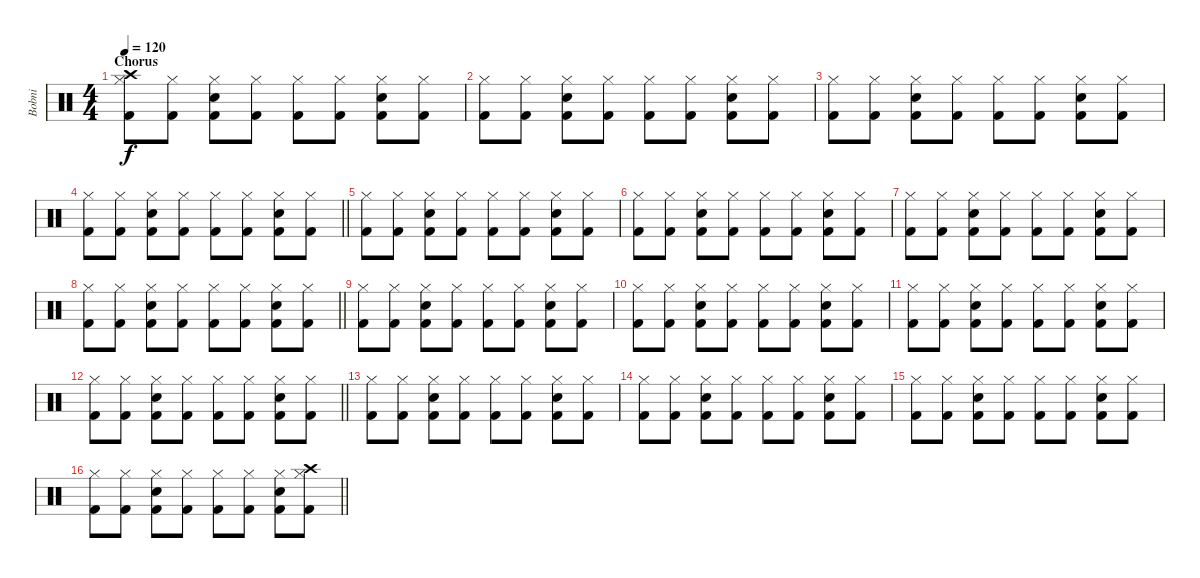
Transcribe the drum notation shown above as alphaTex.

\track ("Bobni" "Bobni") {instrument percussion}
\staff {score}
\articulation defaults
\ts (4 4)
\section ("" "Chorus")
\tempo 120
\clef neutral
\ks c
("Crash high (hit)" "Hi-Hat (closed)" "Kick (hit) 2").8{dy f} ("Hi-Hat (closed)" "Kick (hit) 2").8 ("Hi-Hat (closed)" "Electric Snare (hit)" "Kick (hit) 2").8 ("Hi-Hat (closed)" "Kick (hit) 2").8 ("Hi-Hat (closed)" "Kick (hit) 2").8 ("Hi-Hat (closed)" "Kick (hit) 2").8 ("Hi-Hat (closed)" "Electric Snare (hit)" "Kick (hit) 2").8 ("Hi-Hat (closed)" "Kick (hit) 2").8 |
("Hi-Hat (closed)" "Kick (hit) 2").8 ("Hi-Hat (closed)" "Kick (hit) 2").8 ("Hi-Hat (closed)" "Electric Snare (hit)" "Kick (hit) 2").8 ("Hi-Hat (closed)" "Kick (hit) 2").8 ("Hi-Hat (closed)" "Kick (hit) 2").8 ("Hi-Hat (closed)" "Kick (hit) 2").8 ("Hi-Hat (closed)" "Electric Snare (hit)" "Kick (hit) 2").8 ("Hi-Hat (closed)" "Kick (hit) 2").8 |
("Hi-Hat (closed)" "Kick (hit) 2").8 ("Hi-Hat (closed)" "Kick (hit) 2").8 ("Hi-Hat (closed)" "Electric Snare (hit)" "Kick (hit) 2").8 ("Hi-Hat (closed)" "Kick (hit) 2").8 ("Hi-Hat (closed)" "Kick (hit) 2").8 ("Hi-Hat (closed)" "Kick (hit) 2").8 ("Hi-Hat (closed)" "Electric Snare (hit)" "Kick (hit) 2").8 ("Hi-Hat (closed)" "Kick (hit) 2").8 |
\barLineRight lightlight
("Hi-Hat (closed)" "Kick (hit) 2").8 ("Hi-Hat (closed)" "Kick (hit) 2").8 ("Hi-Hat (closed)" "Electric Snare (hit)" "Kick (hit) 2").8 ("Hi-Hat (closed)" "Kick (hit) 2").8 ("Hi-Hat (closed)" "Kick (hit) 2").8 ("Hi-Hat (closed)" "Kick (hit) 2").8 ("Hi-Hat (closed)" "Electric Snare (hit)" "Kick (hit) 2").8 ("Hi-Hat (closed)" "Kick (hit) 2").8 |
("Hi-Hat (closed)" "Kick (hit) 2").8 ("Hi-Hat (closed)" "Kick (hit) 2").8 ("Hi-Hat (closed)" "Electric Snare (hit)" "Kick (hit) 2").8 ("Hi-Hat (closed)" "Kick (hit) 2").8 ("Hi-Hat (closed)" "Kick (hit) 2").8 ("Hi-Hat (closed)" "Kick (hit) 2").8 ("Hi-Hat (closed)" "Electric Snare (hit)" "Kick (hit) 2").8 ("Hi-Hat (closed)" "Kick (hit) 2").8 |
("Hi-Hat (closed)" "Kick (hit) 2").8 ("Hi-Hat (closed)" "Kick (hit) 2").8 ("Hi-Hat (closed)" "Electric Snare (hit)" "Kick (hit) 2").8 ("Hi-Hat (closed)" "Kick (hit) 2").8 ("Hi-Hat (closed)" "Kick (hit) 2").8 ("Hi-Hat (closed)" "Kick (hit) 2").8 ("Hi-Hat (closed)" "Electric Snare (hit)" "Kick (hit) 2").8 ("Hi-Hat (closed)" "Kick (hit) 2").8 |
("Hi-Hat (closed)" "Kick (hit) 2").8 ("Hi-Hat (closed)" "Kick (hit) 2").8 ("Hi-Hat (closed)" "Electric Snare (hit)" "Kick (hit) 2").8 ("Hi-Hat (closed)" "Kick (hit) 2").8 ("Hi-Hat (closed)" "Kick (hit) 2").8 ("Hi-Hat (closed)" "Kick (hit) 2").8 ("Hi-Hat (closed)" "Electric Snare (hit)" "Kick (hit) 2").8 ("Hi-Hat (closed)" "Kick (hit) 2").8 |
\barLineRight lightlight
("Hi-Hat (closed)" "Kick (hit) 2").8 ("Hi-Hat (closed)" "Kick (hit) 2").8 ("Hi-Hat (closed)" "Electric Snare (hit)" "Kick (hit) 2").8 ("Hi-Hat (closed)" "Kick (hit) 2").8 ("Hi-Hat (closed)" "Kick (hit) 2").8 ("Hi-Hat (closed)" "Kick (hit) 2").8 ("Hi-Hat (closed)" "Electric Snare (hit)" "Kick (hit) 2").8 ("Hi-Hat (closed)" "Kick (hit) 2").8 |
("Hi-Hat (closed)" "Kick (hit) 2").8 ("Hi-Hat (closed)" "Kick (hit) 2").8 ("Hi-Hat (closed)" "Electric Snare (hit)" "Kick (hit) 2").8 ("Hi-Hat (closed)" "Kick (hit) 2").8 ("Hi-Hat (closed)" "Kick (hit) 2").8 ("Hi-Hat (closed)" "Kick (hit) 2").8 ("Hi-Hat (closed)" "Electric Snare (hit)" "Kick (hit) 2").8 ("Hi-Hat (closed)" "Kick (hit) 2").8 |
("Hi-Hat (closed)" "Kick (hit) 2").8 ("Hi-Hat (closed)" "Kick (hit) 2").8 ("Hi-Hat (closed)" "Electric Snare (hit)" "Kick (hit) 2").8 ("Hi-Hat (closed)" "Kick (hit) 2").8 ("Hi-Hat (closed)" "Kick (hit) 2").8 ("Hi-Hat (closed)" "Kick (hit) 2").8 ("Hi-Hat (closed)" "Electric Snare (hit)" "Kick (hit) 2").8 ("Hi-Hat (closed)" "Kick (hit) 2").8 |
("Hi-Hat (closed)" "Kick (hit) 2").8 ("Hi-Hat (closed)" "Kick (hit) 2").8 ("Hi-Hat (closed)" "Electric Snare (hit)" "Kick (hit) 2").8 ("Hi-Hat (closed)" "Kick (hit) 2").8 ("Hi-Hat (closed)" "Kick (hit) 2").8 ("Hi-Hat (closed)" "Kick (hit) 2").8 ("Hi-Hat (closed)" "Electric Snare (hit)" "Kick (hit) 2").8 ("Hi-Hat (closed)" "Kick (hit) 2").8 |
\barLineRight lightlight
("Hi-Hat (closed)" "Kick (hit) 2").8 ("Hi-Hat (closed)" "Kick (hit) 2").8 ("Hi-Hat (closed)" "Electric Snare (hit)" "Kick (hit) 2").8 ("Hi-Hat (closed)" "Kick (hit) 2").8 ("Hi-Hat (closed)" "Kick (hit) 2").8 ("Hi-Hat (closed)" "Kick (hit) 2").8 ("Hi-Hat (closed)" "Electric Snare (hit)" "Kick (hit) 2").8 ("Hi-Hat (closed)" "Kick (hit) 2").8 |
("Hi-Hat (closed)" "Kick (hit) 2").8 ("Hi-Hat (closed)" "Kick (hit) 2").8 ("Hi-Hat (closed)" "Electric Snare (hit)" "Kick (hit) 2").8 ("Hi-Hat (closed)" "Kick (hit) 2").8 ("Hi-Hat (closed)" "Kick (hit) 2").8 ("Hi-Hat (closed)" "Kick (hit) 2").8 ("Hi-Hat (closed)" "Electric Snare (hit)" "Kick (hit) 2").8 ("Hi-Hat (closed)" "Kick (hit) 2").8 |
("Hi-Hat (closed)" "Kick (hit) 2").8 ("Hi-Hat (closed)" "Kick (hit) 2").8 ("Hi-Hat (closed)" "Electric Snare (hit)" "Kick (hit) 2").8 ("Hi-Hat (closed)" "Kick (hit) 2").8 ("Hi-Hat (closed)" "Kick (hit) 2").8 ("Hi-Hat (closed)" "Kick (hit) 2").8 ("Hi-Hat (closed)" "Electric Snare (hit)" "Kick (hit) 2").8 ("Hi-Hat (closed)" "Kick (hit) 2").8 |
("Hi-Hat (closed)" "Kick (hit) 2").8 ("Hi-Hat (closed)" "Kick (hit) 2").8 ("Hi-Hat (closed)" "Electric Snare (hit)" "Kick (hit) 2").8 ("Hi-Hat (closed)" "Kick (hit) 2").8 ("Hi-Hat (closed)" "Kick (hit) 2").8 ("Hi-Hat (closed)" "Kick (hit) 2").8 ("Hi-Hat (closed)" "Electric Snare (hit)" "Kick (hit) 2").8 ("Hi-Hat (closed)" "Kick (hit) 2").8 |
\barLineRight lightlight
("Hi-Hat (closed)" "Kick (hit) 2").8 ("Hi-Hat (closed)" "Kick (hit) 2").8 ("Hi-Hat (closed)" "Electric Snare (hit)" "Kick (hit) 2").8 ("Hi-Hat (closed)" "Kick (hit) 2").8 ("Hi-Hat (closed)" "Kick (hit) 2").8 ("Hi-Hat (closed)" "Kick (hit) 2").8 ("Hi-Hat (closed)" "Electric Snare (hit)" "Kick (hit) 2").8 ("Crash high (hit)" "Hi-Hat (closed)" "Kick (hit) 2").8
